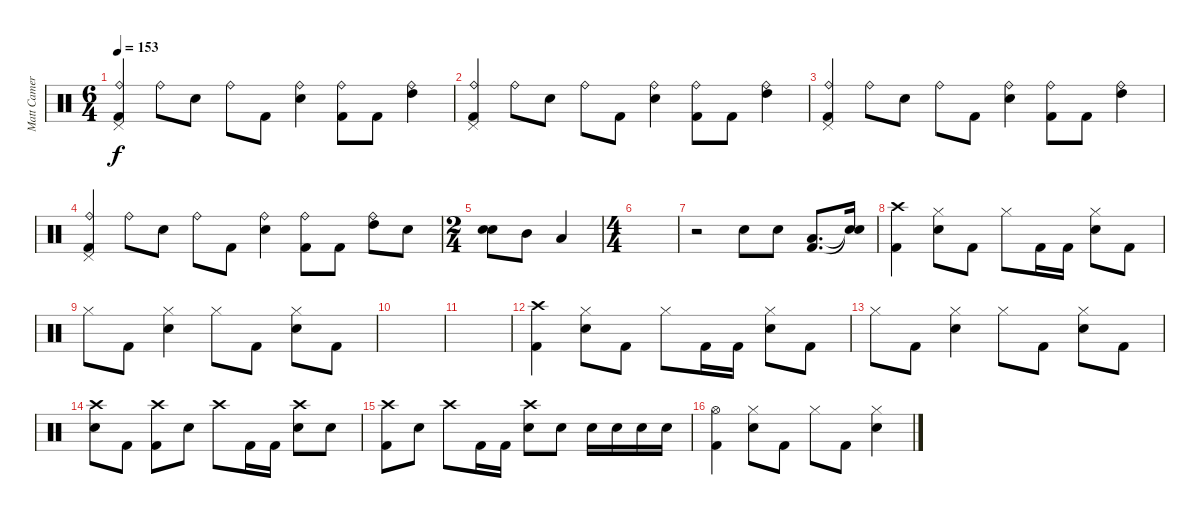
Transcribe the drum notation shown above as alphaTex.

\track ("Matt Cameron" "Matt Camer") {instrument percussion}
\staff {score}
\articulation defaults
\ts (6 4)
\tempo 153
\clef neutral
\ks c
("Pedal Hi-Hat (hit)" "Ride (bell)" "Kick (hit) 2").4{dy f} "Ride (bell)".8 "Electric Snare (hit)".8 "Ride (bell)".8 "Kick (hit) 2".8 ("Ride (bell)" "Electric Snare (hit)").4 ("Ride (bell)" "Kick (hit) 2").8 "Kick (hit) 2".8 ("Ride (bell)" "High Tom (hit)").4 |
("Pedal Hi-Hat (hit)" "Ride (bell)" "Kick (hit) 2").4 "Ride (bell)".8 "Electric Snare (hit)".8 "Ride (bell)".8 "Kick (hit) 2".8 ("Ride (bell)" "Electric Snare (hit)").4 ("Ride (bell)" "Kick (hit) 2").8 "Kick (hit) 2".8 ("Ride (bell)" "High Tom (hit)").4 |
("Pedal Hi-Hat (hit)" "Ride (bell)" "Kick (hit) 2").4 "Ride (bell)".8 "Electric Snare (hit)".8 "Ride (bell)".8 "Kick (hit) 2".8 ("Ride (bell)" "Electric Snare (hit)").4 ("Ride (bell)" "Kick (hit) 2").8 "Kick (hit) 2".8 ("Ride (bell)" "High Tom (hit)").4 |
("Pedal Hi-Hat (hit)" "Ride (bell)" "Kick (hit) 2").4 "Ride (bell)".8 "Electric Snare (hit)".8 "Ride (bell)".8 "Kick (hit) 2".8 ("Ride (bell)" "Electric Snare (hit)").4 ("Ride (bell)" "Kick (hit) 2").8 "Kick (hit) 2".8 ("Ride (bell)" "High Tom (hit)").8 "Electric Snare (hit)".8 |
\ts (2 4)
("Electric Snare (hit)" "Electric Snare (hit)").8 "Mid Tom (hit)".8 "Low Tom (hit)".4 |
\ts (4 4)
|
r.2 "Electric Snare (hit)".8 "Electric Snare (hit)".8 ("Low Floor Tom (hit)" "Kick (hit) 2").8{d} ("Snare (hit)"{t} "Snare (hit)"{t}).16 |
("Crash high (hit)" "Kick (hit) 2").4 ("Hi-Hat (closed)" "Electric Snare (hit)").8 "Kick (hit) 2".8 "Hi-Hat (closed)".8 "Kick (hit) 2".16 "Kick (hit) 2".16 ("Hi-Hat (closed)" "Electric Snare (hit)").8 "Kick (hit) 2".8 |
"Hi-Hat (closed)".8 "Kick (hit) 2".8 ("Hi-Hat (closed)" "Electric Snare (hit)").4 "Hi-Hat (closed)".8 "Kick (hit) 2".8 ("Hi-Hat (closed)" "Electric Snare (hit)").8 "Kick (hit) 2".8 |
|
|
("Crash high (hit)" "Kick (hit) 2").4 ("Hi-Hat (closed)" "Electric Snare (hit)").8 "Kick (hit) 2".8 "Hi-Hat (closed)".8 "Kick (hit) 2".16 "Kick (hit) 2".16 ("Hi-Hat (closed)" "Electric Snare (hit)").8 "Kick (hit) 2".8 |
"Hi-Hat (closed)".8 "Kick (hit) 2".8 ("Hi-Hat (closed)" "Electric Snare (hit)").4 "Hi-Hat (closed)".8 "Kick (hit) 2".8 ("Hi-Hat (closed)" "Electric Snare (hit)").8 "Kick (hit) 2".8 |
("Crash high (hit)" "Electric Snare (hit)").8 "Kick (hit) 2".8 ("Crash high (hit)" "Kick (hit) 2").8 "Electric Snare (hit)".8 "Crash high (hit)".8 "Kick (hit) 2".16 "Kick (hit) 2".16 ("Crash high (hit)" "Electric Snare (hit)").8 "Electric Snare (hit)".8 |
("Crash high (hit)" "Kick (hit) 2").8 "Electric Snare (hit)".8 "Crash high (hit)".8 "Kick (hit) 2".16 "Kick (hit) 2".16 ("Crash high (hit)" "Electric Snare (hit)").8 "Electric Snare (hit)".8 "Electric Snare (hit)".16 "Electric Snare (hit)".16 "Electric Snare (hit)".16 "Electric Snare (hit)".16 |
("Hi-Hat (open)" "Kick (hit) 2").4 ("Hi-Hat (closed)" "Electric Snare (hit)").8 "Kick (hit) 2".8 "Hi-Hat (closed)".8 "Kick (hit) 2".8 ("Hi-Hat (closed)" "Electric Snare (hit)").4
